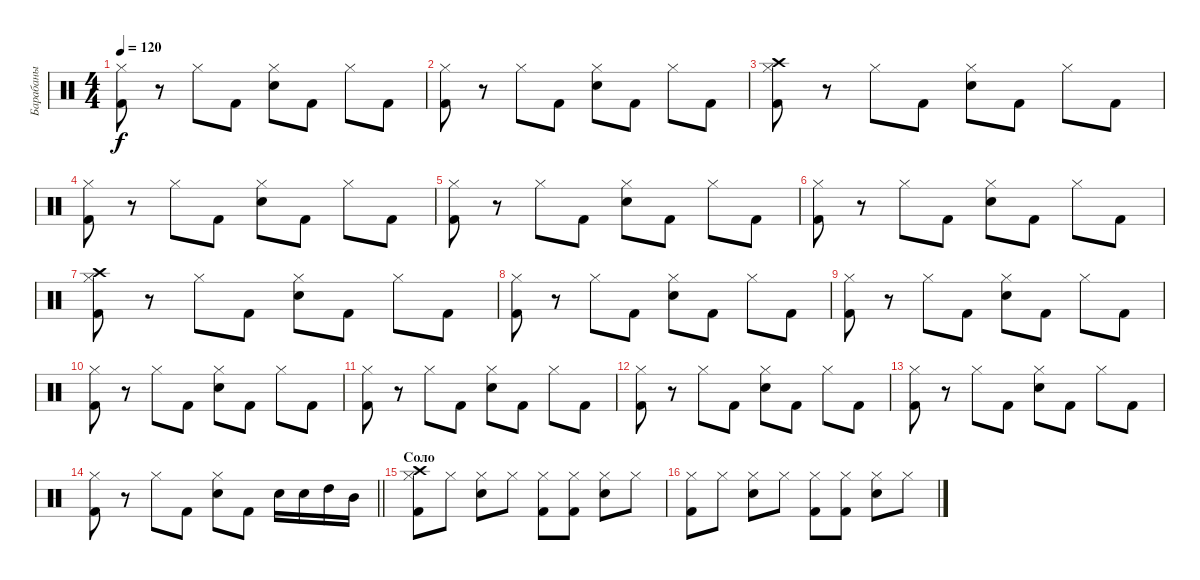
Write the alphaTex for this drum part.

\track ("Барабаны" "Барабаны") {instrument percussion}
\staff {score}
\articulation defaults
\ts (4 4)
\tempo 120
\clef neutral
\ks c
("Hi-Hat (closed)" "Kick (hit) 2").8{dy f} r.8 "Hi-Hat (closed)".8 "Kick (hit) 2".8 ("Hi-Hat (closed)" "Electric Snare (hit)").8 "Kick (hit) 2".8 "Hi-Hat (closed)".8 "Kick (hit) 2".8 |
("Hi-Hat (closed)" "Kick (hit) 2").8 r.8 "Hi-Hat (closed)".8 "Kick (hit) 2".8 ("Hi-Hat (closed)" "Electric Snare (hit)").8 "Kick (hit) 2".8 "Hi-Hat (closed)".8 "Kick (hit) 2".8 |
("Hi-Hat (closed)" "Kick (hit) 2" "Crash high (hit)").8 r.8 "Hi-Hat (closed)".8 "Kick (hit) 2".8 ("Hi-Hat (closed)" "Electric Snare (hit)").8 "Kick (hit) 2".8 "Hi-Hat (closed)".8 "Kick (hit) 2".8 |
("Hi-Hat (closed)" "Kick (hit) 2").8 r.8 "Hi-Hat (closed)".8 "Kick (hit) 2".8 ("Hi-Hat (closed)" "Electric Snare (hit)").8 "Kick (hit) 2".8 "Hi-Hat (closed)".8 "Kick (hit) 2".8 |
("Hi-Hat (closed)" "Kick (hit) 2").8 r.8 "Hi-Hat (closed)".8 "Kick (hit) 2".8 ("Hi-Hat (closed)" "Electric Snare (hit)").8 "Kick (hit) 2".8 "Hi-Hat (closed)".8 "Kick (hit) 2".8 |
("Hi-Hat (closed)" "Kick (hit) 2").8 r.8 "Hi-Hat (closed)".8 "Kick (hit) 2".8 ("Hi-Hat (closed)" "Electric Snare (hit)").8 "Kick (hit) 2".8 "Hi-Hat (closed)".8 "Kick (hit) 2".8 |
("Hi-Hat (closed)" "Kick (hit) 2" "Crash high (hit)").8 r.8 "Hi-Hat (closed)".8 "Kick (hit) 2".8 ("Hi-Hat (closed)" "Electric Snare (hit)").8 "Kick (hit) 2".8 "Hi-Hat (closed)".8 "Kick (hit) 2".8 |
("Hi-Hat (closed)" "Kick (hit) 2").8 r.8 "Hi-Hat (closed)".8 "Kick (hit) 2".8 ("Hi-Hat (closed)" "Electric Snare (hit)").8 "Kick (hit) 2".8 "Hi-Hat (closed)".8 "Kick (hit) 2".8 |
("Hi-Hat (closed)" "Kick (hit) 2").8 r.8 "Hi-Hat (closed)".8 "Kick (hit) 2".8 ("Hi-Hat (closed)" "Electric Snare (hit)").8 "Kick (hit) 2".8 "Hi-Hat (closed)".8 "Kick (hit) 2".8 |
("Hi-Hat (closed)" "Kick (hit) 2").8 r.8 "Hi-Hat (closed)".8 "Kick (hit) 2".8 ("Hi-Hat (closed)" "Electric Snare (hit)").8 "Kick (hit) 2".8 "Hi-Hat (closed)".8 "Kick (hit) 2".8 |
("Hi-Hat (closed)" "Kick (hit) 2").8 r.8 "Hi-Hat (closed)".8 "Kick (hit) 2".8 ("Hi-Hat (closed)" "Electric Snare (hit)").8 "Kick (hit) 2".8 "Hi-Hat (closed)".8 "Kick (hit) 2".8 |
("Hi-Hat (closed)" "Kick (hit) 2").8 r.8 "Hi-Hat (closed)".8 "Kick (hit) 2".8 ("Hi-Hat (closed)" "Electric Snare (hit)").8 "Kick (hit) 2".8 "Hi-Hat (closed)".8 "Kick (hit) 2".8 |
("Hi-Hat (closed)" "Kick (hit) 2").8 r.8 "Hi-Hat (closed)".8 "Kick (hit) 2".8 ("Hi-Hat (closed)" "Electric Snare (hit)").8 "Kick (hit) 2".8 "Hi-Hat (closed)".8 "Kick (hit) 2".8 |
\barLineRight lightlight
("Hi-Hat (closed)" "Kick (hit) 2").8 r.8 "Hi-Hat (closed)".8 "Kick (hit) 2".8 ("Hi-Hat (closed)" "Electric Snare (hit)").8 "Kick (hit) 2".8 "Electric Snare (hit)".16 "Electric Snare (hit)".16 "High Tom (hit)".16 "Mid Tom (hit)".16 |
\section ("" "Соло")
("Hi-Hat (closed)" "Kick (hit) 2" "Crash high (hit)").8 "Hi-Hat (closed)".8 ("Hi-Hat (closed)" "Electric Snare (hit)").8 "Hi-Hat (closed)".8 ("Hi-Hat (closed)" "Kick (hit) 2").8 ("Hi-Hat (closed)" "Kick (hit) 2").8 ("Hi-Hat (closed)" "Electric Snare (hit)").8 "Hi-Hat (closed)".8 |
("Hi-Hat (closed)" "Kick (hit) 2").8 "Hi-Hat (closed)".8 ("Hi-Hat (closed)" "Electric Snare (hit)").8 "Hi-Hat (closed)".8 ("Hi-Hat (closed)" "Kick (hit) 2").8 ("Hi-Hat (closed)" "Kick (hit) 2").8 ("Hi-Hat (closed)" "Electric Snare (hit)").8 "Hi-Hat (closed)".8
